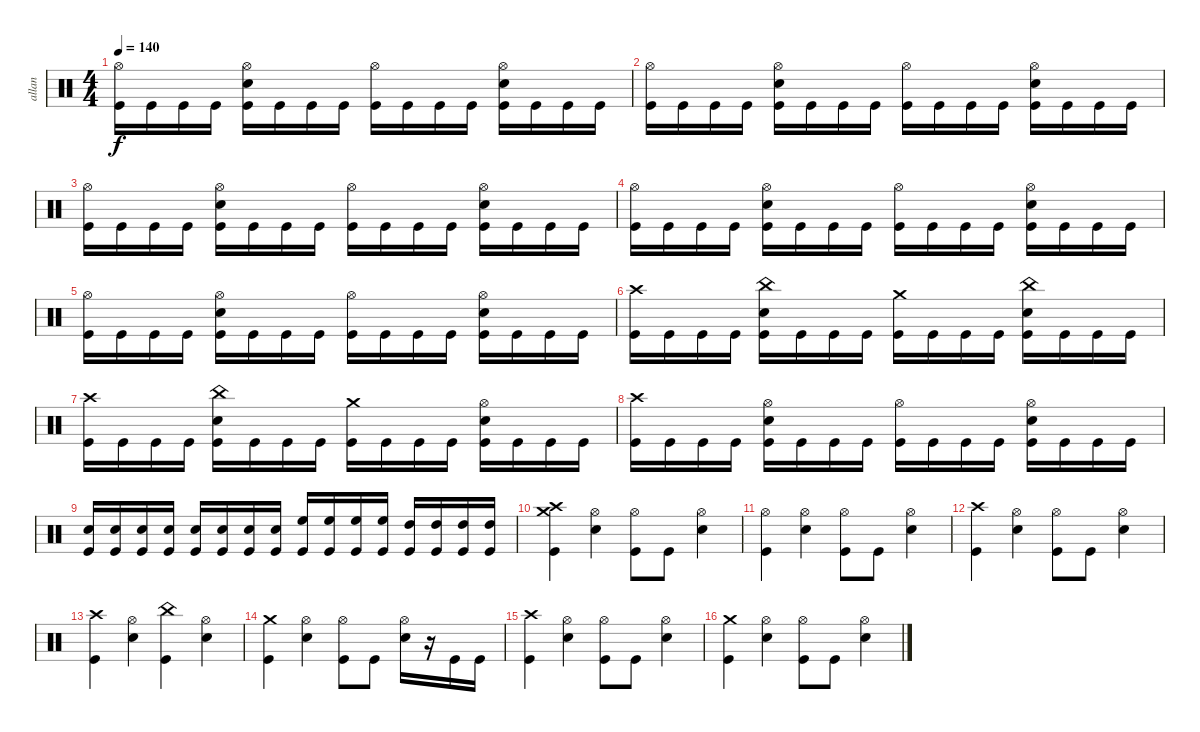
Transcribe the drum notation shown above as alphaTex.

\track ("allan" "allan") {instrument percussion}
\staff {score}
\articulation defaults
\ts (4 4)
\tempo 140
\clef neutral
\ks c
("Hi-Hat (open)" "Kick (hit)").16{dy f} "Kick (hit)".16 "Kick (hit)".16 "Kick (hit)".16 ("Snare (hit) 2" "Hi-Hat (open)" "Kick (hit)").16 "Kick (hit)".16 "Kick (hit)".16 "Kick (hit)".16 ("Hi-Hat (open)" "Kick (hit)").16 "Kick (hit)".16 "Kick (hit)".16 "Kick (hit)".16 ("Hi-Hat (open)" "Snare (hit) 2" "Kick (hit)").16 "Kick (hit)".16 "Kick (hit)".16 "Kick (hit)".16 |
("Hi-Hat (open)" "Kick (hit)").16 "Kick (hit)".16 "Kick (hit)".16 "Kick (hit)".16 ("Hi-Hat (open)" "Snare (hit) 2" "Kick (hit)").16 "Kick (hit)".16 "Kick (hit)".16 "Kick (hit)".16 ("Hi-Hat (open)" "Kick (hit)").16 "Kick (hit)".16 "Kick (hit)".16 "Kick (hit)".16 ("Hi-Hat (open)" "Snare (hit) 2" "Kick (hit)").16 "Kick (hit)".16 "Kick (hit)".16 "Kick (hit)".16 |
("Hi-Hat (open)" "Kick (hit)").16 "Kick (hit)".16 "Kick (hit)".16 "Kick (hit)".16 ("Hi-Hat (open)" "Snare (hit) 2" "Kick (hit)").16 "Kick (hit)".16 "Kick (hit)".16 "Kick (hit)".16 ("Hi-Hat (open)" "Kick (hit)").16 "Kick (hit)".16 "Kick (hit)".16 "Kick (hit)".16 ("Hi-Hat (open)" "Snare (hit) 2" "Kick (hit)").16 "Kick (hit)".16 "Kick (hit)".16 "Kick (hit)".16 |
("Hi-Hat (open)" "Kick (hit)").16 "Kick (hit)".16 "Kick (hit)".16 "Kick (hit)".16 ("Hi-Hat (open)" "Snare (hit) 2" "Kick (hit)").16 "Kick (hit)".16 "Kick (hit)".16 "Kick (hit)".16 ("Hi-Hat (open)" "Kick (hit)").16 "Kick (hit)".16 "Kick (hit)".16 "Kick (hit)".16 ("Hi-Hat (open)" "Snare (hit) 2" "Kick (hit)").16 "Kick (hit)".16 "Kick (hit)".16 "Kick (hit)".16 |
("Hi-Hat (open)" "Kick (hit)").16 "Kick (hit)".16 "Kick (hit)".16 "Kick (hit)".16 ("Hi-Hat (open)" "Snare (hit) 2" "Kick (hit)").16 "Kick (hit)".16 "Kick (hit)".16 "Kick (hit)".16 ("Hi-Hat (open)" "Kick (hit)").16 "Kick (hit)".16 "Kick (hit)".16 "Kick (hit)".16 ("Hi-Hat (open)" "Snare (hit) 2" "Kick (hit)").16 "Kick (hit)".16 "Kick (hit)".16 "Kick (hit)".16 |
("Crash high (hit)" "Kick (hit)").16 "Kick (hit)".16 "Kick (hit)".16 "Kick (hit)".16 ("China (hit)" "Snare (hit) 2" "Kick (hit)").16 "Kick (hit)".16 "Kick (hit)".16 "Kick (hit)".16 ("Crash medium (hit)" "Kick (hit)").16 "Kick (hit)".16 "Kick (hit)".16 "Kick (hit)".16 ("Snare (hit) 2" "China (hit)" "Kick (hit)").16 "Kick (hit)".16 "Kick (hit)".16 "Kick (hit)".16 |
("Crash high (hit)" "Kick (hit)").16 "Kick (hit)".16 "Kick (hit)".16 "Kick (hit)".16 ("China (hit)" "Snare (hit) 2" "Kick (hit)").16 "Kick (hit)".16 "Kick (hit)".16 "Kick (hit)".16 ("Crash medium (hit)" "Kick (hit)").16 "Kick (hit)".16 "Kick (hit)".16 "Kick (hit)".16 ("Hi-Hat (open)" "Snare (hit) 2" "Kick (hit)").16 "Kick (hit)".16 "Kick (hit)".16 "Kick (hit)".16 |
("Crash high (hit)" "Kick (hit)").16 "Kick (hit)".16 "Kick (hit)".16 "Kick (hit)".16 ("Hi-Hat (open)" "Snare (hit) 2" "Kick (hit)").16 "Kick (hit)".16 "Kick (hit)".16 "Kick (hit)".16 ("Hi-Hat (open)" "Kick (hit)").16 "Kick (hit)".16 "Kick (hit)".16 "Kick (hit)".16 ("Hi-Hat (open)" "Snare (hit) 2" "Kick (hit)").16 "Kick (hit)".16 "Kick (hit)".16 "Kick (hit)".16 |
("Snare (hit) 2" "Kick (hit)").16 ("Snare (hit) 2" "Kick (hit)").16 ("Snare (hit) 2" "Kick (hit)").16 ("Snare (hit) 2" "Kick (hit)").16 ("Snare (hit) 2" "Kick (hit)").16 ("Snare (hit) 2" "Kick (hit)").16 ("Snare (hit) 2" "Kick (hit)").16 ("Snare (hit) 2" "Kick (hit)").16 ("High Floor Tom (hit)" "Kick (hit)").16 ("High Floor Tom (hit)" "Kick (hit)").16 ("High Floor Tom (hit)" "Kick (hit)").16 ("High Floor Tom (hit)" "Kick (hit)").16 ("High Tom (hit)" "Kick (hit)").16 ("High Tom (hit)" "Kick (hit)").16 ("High Tom (hit)" "Kick (hit)").16 ("High Tom (hit)" "Kick (hit)").16 |
("Crash high (hit)" "Crash medium (hit)" "Kick (hit)").4 ("Hi-Hat (open)" "Snare (hit) 2").4 ("Hi-Hat (open)" "Kick (hit)").8 "Kick (hit)".8 ("Hi-Hat (open)" "Snare (hit) 2").4 |
("Hi-Hat (open)" "Kick (hit)").4 ("Hi-Hat (open)" "Snare (hit) 2").4 ("Hi-Hat (open)" "Kick (hit)").8 "Kick (hit)".8 ("Hi-Hat (open)" "Snare (hit) 2").4 |
("Crash high (hit)" "Kick (hit)").4 ("Hi-Hat (open)" "Snare (hit) 2").4 ("Hi-Hat (open)" "Kick (hit)").8 "Kick (hit)".8 ("Hi-Hat (open)" "Snare (hit) 2").4 |
("Crash high (hit)" "Kick (hit)").4 ("Hi-Hat (open)" "Snare (hit) 2").4 ("China (hit)" "Kick (hit)").4 ("Hi-Hat (open)" "Snare (hit) 2").4 |
("Crash medium (hit)" "Kick (hit)").4 ("Hi-Hat (open)" "Snare (hit) 2").4 ("Hi-Hat (open)" "Kick (hit)").8 "Kick (hit)".8 ("Hi-Hat (open)" "Snare (hit) 2").16 r.16 "Kick (hit)".16 "Kick (hit)".16 |
("Crash high (hit)" "Kick (hit)").4 ("Hi-Hat (open)" "Snare (hit) 2").4 ("Hi-Hat (open)" "Kick (hit)").8 "Kick (hit)".8 ("Hi-Hat (open)" "Snare (hit) 2").4 |
("Crash medium (hit)" "Kick (hit)").4 ("Hi-Hat (open)" "Snare (hit) 2").4 ("Hi-Hat (open)" "Kick (hit)").8 "Kick (hit)".8 ("Hi-Hat (open)" "Snare (hit) 2").4
